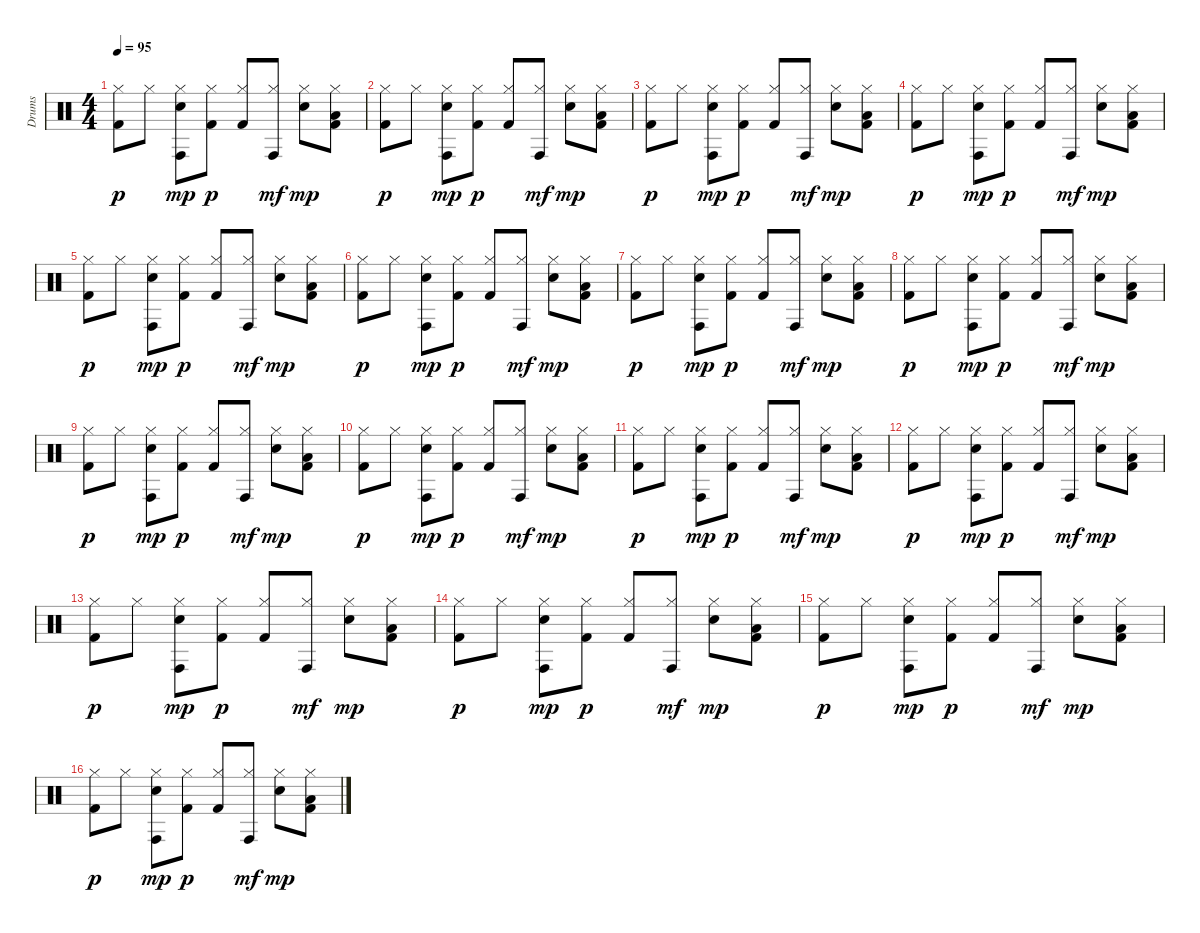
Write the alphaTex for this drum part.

\track ("Drums" "Drums") {instrument percussion}
\staff {score}
\articulation defaults
\ts (4 4)
\tempo 95
\clef neutral
\ks c
("Hi-Hat (closed)" "Kick (hit) 2").8{dy p} "Hi-Hat (closed)".8 ("Hi-Hat (closed)" "Conga high (hit)" "Electric Snare (hit)").8{dy mp} ("Hi-Hat (closed)" "Kick (hit) 2").8{dy p} ("Hi-Hat (closed)" "Kick (hit) 2").8 ("Hi-Hat (closed)" "Conga high (hit)").8{dy mf} ("Hi-Hat (closed)" "Electric Snare (hit)").8{dy mp} ("Hi-Hat (closed)" "Low Tom (hit)" "Kick (hit) 2").8 |
("Hi-Hat (closed)" "Kick (hit) 2").8{dy p} "Hi-Hat (closed)".8 ("Hi-Hat (closed)" "Conga high (hit)" "Electric Snare (hit)").8{dy mp} ("Hi-Hat (closed)" "Kick (hit) 2").8{dy p} ("Hi-Hat (closed)" "Kick (hit) 2").8 ("Hi-Hat (closed)" "Conga high (hit)").8{dy mf} ("Hi-Hat (closed)" "Electric Snare (hit)").8{dy mp} ("Hi-Hat (closed)" "Low Tom (hit)" "Kick (hit) 2").8 |
("Hi-Hat (closed)" "Kick (hit) 2").8{dy p} "Hi-Hat (closed)".8 ("Hi-Hat (closed)" "Conga high (hit)" "Electric Snare (hit)").8{dy mp} ("Hi-Hat (closed)" "Kick (hit) 2").8{dy p} ("Hi-Hat (closed)" "Kick (hit) 2").8 ("Hi-Hat (closed)" "Conga high (hit)").8{dy mf} ("Hi-Hat (closed)" "Electric Snare (hit)").8{dy mp} ("Hi-Hat (closed)" "Low Tom (hit)" "Kick (hit) 2").8 |
("Hi-Hat (closed)" "Kick (hit) 2").8{dy p} "Hi-Hat (closed)".8 ("Hi-Hat (closed)" "Conga high (hit)" "Electric Snare (hit)").8{dy mp} ("Hi-Hat (closed)" "Kick (hit) 2").8{dy p} ("Hi-Hat (closed)" "Kick (hit) 2").8 ("Hi-Hat (closed)" "Conga high (hit)").8{dy mf} ("Hi-Hat (closed)" "Electric Snare (hit)").8{dy mp} ("Hi-Hat (closed)" "Low Tom (hit)" "Kick (hit) 2").8 |
("Hi-Hat (closed)" "Kick (hit) 2").8{dy p} "Hi-Hat (closed)".8 ("Hi-Hat (closed)" "Conga high (hit)" "Electric Snare (hit)").8{dy mp} ("Hi-Hat (closed)" "Kick (hit) 2").8{dy p} ("Hi-Hat (closed)" "Kick (hit) 2").8 ("Hi-Hat (closed)" "Conga high (hit)").8{dy mf} ("Hi-Hat (closed)" "Electric Snare (hit)").8{dy mp} ("Hi-Hat (closed)" "Low Tom (hit)" "Kick (hit) 2").8 |
("Hi-Hat (closed)" "Kick (hit) 2").8{dy p} "Hi-Hat (closed)".8 ("Hi-Hat (closed)" "Conga high (hit)" "Electric Snare (hit)").8{dy mp} ("Hi-Hat (closed)" "Kick (hit) 2").8{dy p} ("Hi-Hat (closed)" "Kick (hit) 2").8 ("Hi-Hat (closed)" "Conga high (hit)").8{dy mf} ("Hi-Hat (closed)" "Electric Snare (hit)").8{dy mp} ("Hi-Hat (closed)" "Low Tom (hit)" "Kick (hit) 2").8 |
("Hi-Hat (closed)" "Kick (hit) 2").8{dy p} "Hi-Hat (closed)".8 ("Hi-Hat (closed)" "Conga high (hit)" "Electric Snare (hit)").8{dy mp} ("Hi-Hat (closed)" "Kick (hit) 2").8{dy p} ("Hi-Hat (closed)" "Kick (hit) 2").8 ("Hi-Hat (closed)" "Conga high (hit)").8{dy mf} ("Hi-Hat (closed)" "Electric Snare (hit)").8{dy mp} ("Hi-Hat (closed)" "Low Tom (hit)" "Kick (hit) 2").8 |
("Hi-Hat (closed)" "Kick (hit) 2").8{dy p} "Hi-Hat (closed)".8 ("Hi-Hat (closed)" "Conga high (hit)" "Electric Snare (hit)").8{dy mp} ("Hi-Hat (closed)" "Kick (hit) 2").8{dy p} ("Hi-Hat (closed)" "Kick (hit) 2").8 ("Hi-Hat (closed)" "Conga high (hit)").8{dy mf} ("Hi-Hat (closed)" "Electric Snare (hit)").8{dy mp} ("Hi-Hat (closed)" "Low Tom (hit)" "Kick (hit) 2").8 |
("Hi-Hat (closed)" "Kick (hit) 2").8{dy p} "Hi-Hat (closed)".8 ("Hi-Hat (closed)" "Conga high (hit)" "Electric Snare (hit)").8{dy mp} ("Hi-Hat (closed)" "Kick (hit) 2").8{dy p} ("Hi-Hat (closed)" "Kick (hit) 2").8 ("Hi-Hat (closed)" "Conga high (hit)").8{dy mf} ("Hi-Hat (closed)" "Electric Snare (hit)").8{dy mp} ("Hi-Hat (closed)" "Low Tom (hit)" "Kick (hit) 2").8 |
("Hi-Hat (closed)" "Kick (hit) 2").8{dy p} "Hi-Hat (closed)".8 ("Hi-Hat (closed)" "Conga high (hit)" "Electric Snare (hit)").8{dy mp} ("Hi-Hat (closed)" "Kick (hit) 2").8{dy p} ("Hi-Hat (closed)" "Kick (hit) 2").8 ("Hi-Hat (closed)" "Conga high (hit)").8{dy mf} ("Hi-Hat (closed)" "Electric Snare (hit)").8{dy mp} ("Hi-Hat (closed)" "Low Tom (hit)" "Kick (hit) 2").8 |
("Hi-Hat (closed)" "Kick (hit) 2").8{dy p volume 7} "Hi-Hat (closed)".8 ("Hi-Hat (closed)" "Conga high (hit)" "Electric Snare (hit)").8{dy mp} ("Hi-Hat (closed)" "Kick (hit) 2").8{dy p} ("Hi-Hat (closed)" "Kick (hit) 2").8 ("Hi-Hat (closed)" "Conga high (hit)").8{dy mf} ("Hi-Hat (closed)" "Electric Snare (hit)").8{dy mp} ("Hi-Hat (closed)" "Low Tom (hit)" "Kick (hit) 2").8 |
("Hi-Hat (closed)" "Kick (hit) 2").8{dy p} "Hi-Hat (closed)".8 ("Hi-Hat (closed)" "Conga high (hit)" "Electric Snare (hit)").8{dy mp} ("Hi-Hat (closed)" "Kick (hit) 2").8{dy p} ("Hi-Hat (closed)" "Kick (hit) 2").8 ("Hi-Hat (closed)" "Conga high (hit)").8{dy mf} ("Hi-Hat (closed)" "Electric Snare (hit)").8{dy mp} ("Hi-Hat (closed)" "Low Tom (hit)" "Kick (hit) 2").8 |
("Hi-Hat (closed)" "Kick (hit) 2").8{dy p} "Hi-Hat (closed)".8 ("Hi-Hat (closed)" "Conga high (hit)" "Electric Snare (hit)").8{dy mp} ("Hi-Hat (closed)" "Kick (hit) 2").8{dy p} ("Hi-Hat (closed)" "Kick (hit) 2").8 ("Hi-Hat (closed)" "Conga high (hit)").8{dy mf} ("Hi-Hat (closed)" "Electric Snare (hit)").8{dy mp} ("Hi-Hat (closed)" "Low Tom (hit)" "Kick (hit) 2").8 |
("Hi-Hat (closed)" "Kick (hit) 2").8{dy p} "Hi-Hat (closed)".8 ("Hi-Hat (closed)" "Conga high (hit)" "Electric Snare (hit)").8{dy mp} ("Hi-Hat (closed)" "Kick (hit) 2").8{dy p} ("Hi-Hat (closed)" "Kick (hit) 2").8 ("Hi-Hat (closed)" "Conga high (hit)").8{dy mf} ("Hi-Hat (closed)" "Electric Snare (hit)").8{dy mp} ("Hi-Hat (closed)" "Low Tom (hit)" "Kick (hit) 2").8 |
("Hi-Hat (closed)" "Kick (hit) 2").8{dy p volume 3} "Hi-Hat (closed)".8 ("Hi-Hat (closed)" "Conga high (hit)" "Electric Snare (hit)").8{dy mp} ("Hi-Hat (closed)" "Kick (hit) 2").8{dy p} ("Hi-Hat (closed)" "Kick (hit) 2").8 ("Hi-Hat (closed)" "Conga high (hit)").8{dy mf} ("Hi-Hat (closed)" "Electric Snare (hit)").8{dy mp} ("Hi-Hat (closed)" "Low Tom (hit)" "Kick (hit) 2").8 |
("Hi-Hat (closed)" "Kick (hit) 2").8{dy p} "Hi-Hat (closed)".8 ("Hi-Hat (closed)" "Conga high (hit)" "Electric Snare (hit)").8{dy mp} ("Hi-Hat (closed)" "Kick (hit) 2").8{dy p} ("Hi-Hat (closed)" "Kick (hit) 2").8 ("Hi-Hat (closed)" "Conga high (hit)").8{dy mf} ("Hi-Hat (closed)" "Electric Snare (hit)").8{dy mp} ("Hi-Hat (closed)" "Low Tom (hit)" "Kick (hit) 2").8
